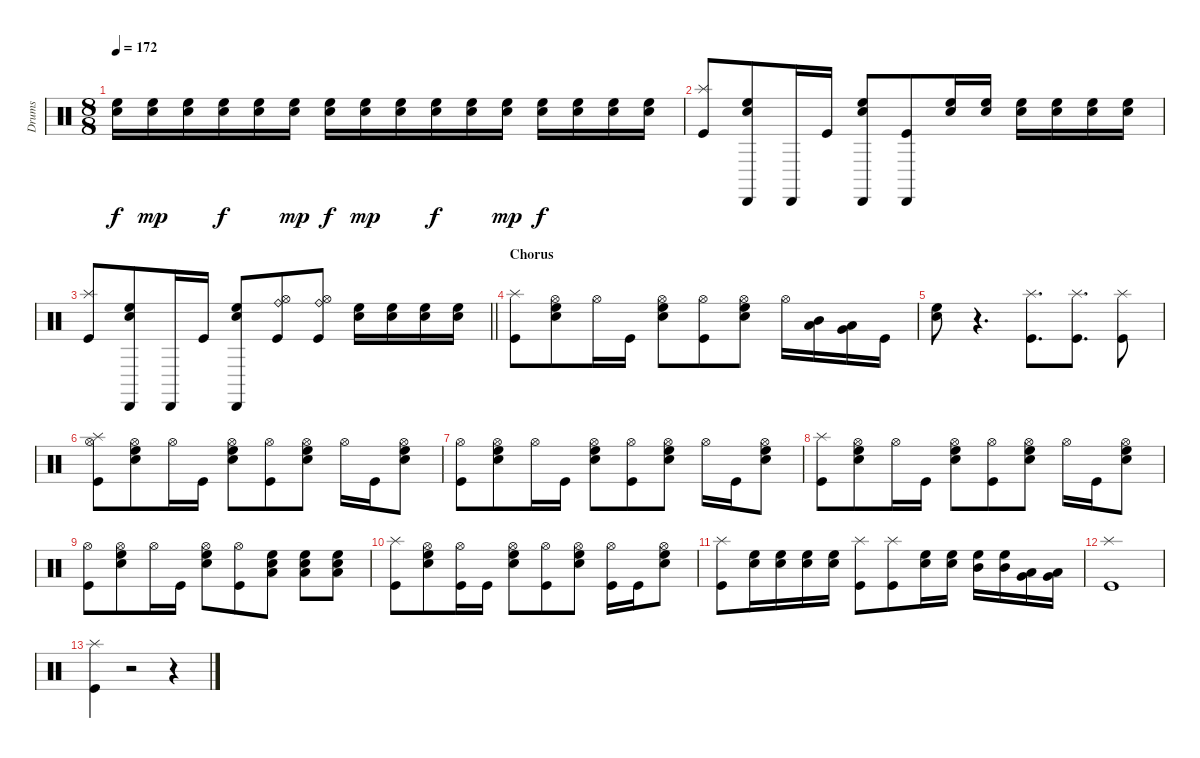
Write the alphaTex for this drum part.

\track ("Drums" "Drums") {instrument percussion}
\staff {score}
\articulation defaults
\ts (8 8)
\tempo 172
\clef neutral
\ks c
("High Floor Tom (hit)" "Electric Snare (hit)").16{dy f} ("Electric Snare (hit)" "High Floor Tom (hit)").16{dy mp} ("Electric Snare (hit)" "High Floor Tom (hit)").16 ("High Floor Tom (hit)" "Electric Snare (hit)").16{dy f} ("High Floor Tom (hit)" "Electric Snare (hit)").16 ("Electric Snare (hit)" "High Floor Tom (hit)").16{dy mp} ("High Floor Tom (hit)" "Electric Snare (hit)").16{dy f} ("Electric Snare (hit)" "High Floor Tom (hit)").16{dy mp} ("Electric Snare (hit)" "High Floor Tom (hit)").16 ("High Floor Tom (hit)" "Electric Snare (hit)").16{dy f} ("High Floor Tom (hit)" "Electric Snare (hit)").16 ("Electric Snare (hit)" "High Floor Tom (hit)").16{dy mp} ("High Floor Tom (hit)" "Electric Snare (hit)").16{dy f} ("High Floor Tom (hit)" "Electric Snare (hit)").16 ("High Floor Tom (hit)" "Electric Snare (hit)").16 ("High Floor Tom (hit)" "Electric Snare (hit)").16 |
("Splash (hit)" "Kick (hit)").8 ("Cabasa (hit)" "High Floor Tom (hit)" "Electric Snare (hit)").8 "Cabasa (hit)".16 "Kick (hit)".16 ("Cabasa (hit)" "High Floor Tom (hit)" "Electric Snare (hit)").8 ("Cabasa (hit)" "Kick (hit)").8 ("High Floor Tom (hit)" "Electric Snare (hit)").16 ("High Floor Tom (hit)" "Electric Snare (hit)").16 ("High Floor Tom (hit)" "Electric Snare (hit)").16 ("High Floor Tom (hit)" "Electric Snare (hit)").16 ("High Floor Tom (hit)" "Electric Snare (hit)").16 ("High Floor Tom (hit)" "Electric Snare (hit)").16 |
\barLineRight lightlight
("Splash (hit)" "Kick (hit)").8 ("Cabasa (hit)" "High Floor Tom (hit)" "Electric Snare (hit)").8 "Cabasa (hit)".16 "Kick (hit)".16 ("Cabasa (hit)" "High Floor Tom (hit)" "Electric Snare (hit)").8 ("Ride (bell)" "Hi-Hat (open)" "Kick (hit)").8 ("Ride (bell)" "Hi-Hat (open)" "Kick (hit)").8 ("High Floor Tom (hit)" "Electric Snare (hit)").16 ("High Floor Tom (hit)" "Electric Snare (hit)").16 ("High Floor Tom (hit)" "Electric Snare (hit)").16 ("High Floor Tom (hit)" "Electric Snare (hit)").16 |
\section ("" "Chorus")
("Splash (hit)" "Kick (hit)").8 ("Hi-Hat (open)" "High Floor Tom (hit)" "Electric Snare (hit)").8 "Hi-Hat (open)".16 "Kick (hit)".16 ("Hi-Hat (open)" "High Floor Tom (hit)" "Electric Snare (hit)").8 ("Hi-Hat (open)" "Kick (hit)").8 ("Hi-Hat (open)" "High Floor Tom (hit)" "Electric Snare (hit)").8 "Hi-Hat (open)".16 ("Low Tom (hit)" "Mid Tom (hit)").16 ("Very Low Tom (hit)" "Low Floor Tom (hit)").16 "Kick (hit)".16 |
("High Floor Tom (hit)" "Electric Snare (hit)").8 r.4{d} ("Splash (hit)" "Kick (hit)").8{d} ("Splash (hit)" "Kick (hit)").8{d} ("Splash (hit)" "Kick (hit)").8 |
("Splash (hit)" "Hi-Hat (open)" "Kick (hit)").8 ("Hi-Hat (open)" "High Floor Tom (hit)" "Electric Snare (hit)").8 "Hi-Hat (open)".16 "Kick (hit)".16 ("Hi-Hat (open)" "High Floor Tom (hit)" "Electric Snare (hit)").8 ("Hi-Hat (open)" "Kick (hit)").8 ("Hi-Hat (open)" "High Floor Tom (hit)" "Electric Snare (hit)").8 "Hi-Hat (open)".16 "Kick (hit)".16 ("Hi-Hat (open)" "High Floor Tom (hit)" "Electric Snare (hit)").8 |
("Hi-Hat (open)" "Kick (hit)").8 ("Hi-Hat (open)" "High Floor Tom (hit)" "Electric Snare (hit)").8 "Hi-Hat (open)".16 "Kick (hit)".16 ("Hi-Hat (open)" "High Floor Tom (hit)" "Electric Snare (hit)").8 ("Hi-Hat (open)" "Kick (hit)").8 ("Hi-Hat (open)" "High Floor Tom (hit)" "Electric Snare (hit)").8 "Hi-Hat (open)".16 "Kick (hit)".16 ("Hi-Hat (open)" "High Floor Tom (hit)" "Electric Snare (hit)").8 |
("Splash (hit)" "Kick (hit)").8 ("Hi-Hat (open)" "High Floor Tom (hit)" "Electric Snare (hit)").8 "Hi-Hat (open)".16 "Kick (hit)".16 ("Hi-Hat (open)" "High Floor Tom (hit)" "Electric Snare (hit)").8 ("Hi-Hat (open)" "Kick (hit)").8 ("Hi-Hat (open)" "High Floor Tom (hit)" "Electric Snare (hit)").8 "Hi-Hat (open)".16 "Kick (hit)".16 ("Hi-Hat (open)" "High Floor Tom (hit)" "Electric Snare (hit)").8 |
("Hi-Hat (open)" "Kick (hit)").8 ("Hi-Hat (open)" "High Floor Tom (hit)" "Electric Snare (hit)").8 "Hi-Hat (open)".16 "Kick (hit)".16 ("Hi-Hat (open)" "High Floor Tom (hit)" "Electric Snare (hit)").8 ("Hi-Hat (open)" "Kick (hit)").8 ("Low Tom (hit)" "High Floor Tom (hit)" "Electric Snare (hit)").8 ("Low Tom (hit)" "High Floor Tom (hit)" "Electric Snare (hit)").8 ("Low Tom (hit)" "High Floor Tom (hit)" "Electric Snare (hit)").8 |
("Splash (hit)" "Kick (hit)").8 ("Hi-Hat (open)" "High Floor Tom (hit)" "Electric Snare (hit)").8 ("Hi-Hat (open)" "Kick (hit)").16 "Kick (hit)".16 ("Hi-Hat (open)" "High Floor Tom (hit)" "Electric Snare (hit)").8 ("Hi-Hat (open)" "Kick (hit)").8 ("Hi-Hat (open)" "High Floor Tom (hit)" "Electric Snare (hit)").8 ("Hi-Hat (open)" "Kick (hit)").16 "Kick (hit)".16 ("Hi-Hat (open)" "High Floor Tom (hit)" "Electric Snare (hit)").8 |
("Splash (hit)" "Kick (hit)").8 ("High Floor Tom (hit)" "Electric Snare (hit)").16 ("High Floor Tom (hit)" "Electric Snare (hit)").16 ("High Floor Tom (hit)" "Electric Snare (hit)").16 ("High Floor Tom (hit)" "Electric Snare (hit)").16 ("Kick (hit)" "Splash (hit)").8 ("Splash (hit)" "Kick (hit)").8 ("High Floor Tom (hit)" "Electric Snare (hit)").16 ("High Floor Tom (hit)" "Electric Snare (hit)").16 ("Mid Tom (hit)" "High Floor Tom (hit)").16 ("Mid Tom (hit)" "High Floor Tom (hit)").16 ("Low Tom (hit)" "Very Low Tom (hit)").16 ("Low Tom (hit)" "Very Low Tom (hit)").16 |
("Kick (hit)" "Splash (hit)").1 |
("Splash (hit)" "Kick (hit)").4 r.2 r.4
